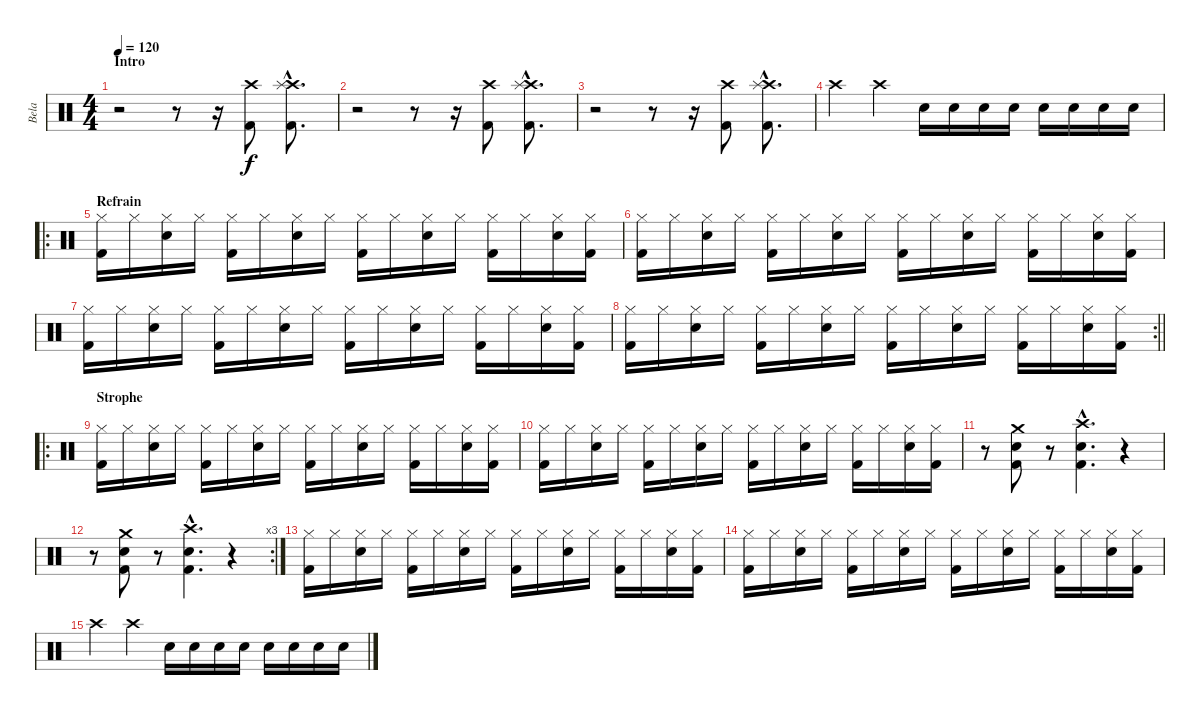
\track ("Bela" "Bela") {instrument percussion}
\staff {score}
\articulation defaults
\ts (4 4)
\section ("" "Intro")
\tempo 120
\clef neutral
\ks c
r.2{dy f} r.8 r.16 ("Crash high (hit)" "Kick (hit) 2").8 ("Crash high (hit)"{hac} "Splash (hit)"{hac} "Kick (hit) 2"{hac}).8{d} |
r.2 r.8 r.16 ("Crash high (hit)" "Kick (hit) 2").8 ("Crash high (hit)"{hac} "Splash (hit)"{hac} "Kick (hit) 2"{hac}).8{d} |
r.2 r.8 r.16 ("Crash high (hit)" "Kick (hit) 2").8 ("Crash high (hit)"{hac} "Splash (hit)"{hac} "Kick (hit) 2"{hac}).8{d} |
"Crash high (hit)".4 "Crash high (hit)".4 "Electric Snare (hit)".16 "Electric Snare (hit)".16 "Electric Snare (hit)".16 "Electric Snare (hit)".16 "Electric Snare (hit)".16 "Electric Snare (hit)".16 "Electric Snare (hit)".16 "Electric Snare (hit)".16 |
\ro
\section ("" "Refrain")
("Hi-Hat (closed)" "Kick (hit) 2").16 "Hi-Hat (closed)".16 ("Hi-Hat (closed)" "Snare (hit) 2").16 "Hi-Hat (closed)".16 ("Hi-Hat (closed)" "Kick (hit) 2").16 "Hi-Hat (closed)".16 ("Hi-Hat (closed)" "Snare (hit) 2").16 "Hi-Hat (closed)".16 ("Hi-Hat (closed)" "Kick (hit) 2").16 "Hi-Hat (closed)".16 ("Hi-Hat (closed)" "Snare (hit) 2").16 "Hi-Hat (closed)".16 ("Hi-Hat (closed)" "Kick (hit) 2").16 "Hi-Hat (closed)".16 ("Hi-Hat (closed)" "Snare (hit) 2").16 ("Hi-Hat (closed)" "Kick (hit) 2").16 |
("Hi-Hat (closed)" "Kick (hit) 2").16 "Hi-Hat (closed)".16 ("Hi-Hat (closed)" "Snare (hit) 2").16 "Hi-Hat (closed)".16 ("Hi-Hat (closed)" "Kick (hit) 2").16 "Hi-Hat (closed)".16 ("Hi-Hat (closed)" "Snare (hit) 2").16 "Hi-Hat (closed)".16 ("Hi-Hat (closed)" "Kick (hit) 2").16 "Hi-Hat (closed)".16 ("Hi-Hat (closed)" "Snare (hit) 2").16 "Hi-Hat (closed)".16 ("Hi-Hat (closed)" "Kick (hit) 2").16 "Hi-Hat (closed)".16 ("Hi-Hat (closed)" "Snare (hit) 2").16 ("Hi-Hat (closed)" "Kick (hit) 2").16 |
("Hi-Hat (closed)" "Kick (hit) 2").16 "Hi-Hat (closed)".16 ("Hi-Hat (closed)" "Snare (hit) 2").16 "Hi-Hat (closed)".16 ("Hi-Hat (closed)" "Kick (hit) 2").16 "Hi-Hat (closed)".16 ("Hi-Hat (closed)" "Snare (hit) 2").16 "Hi-Hat (closed)".16 ("Hi-Hat (closed)" "Kick (hit) 2").16 "Hi-Hat (closed)".16 ("Hi-Hat (closed)" "Snare (hit) 2").16 "Hi-Hat (closed)".16 ("Hi-Hat (closed)" "Kick (hit) 2").16 "Hi-Hat (closed)".16 ("Hi-Hat (closed)" "Snare (hit) 2").16 ("Hi-Hat (closed)" "Kick (hit) 2").16 |
\rc 2
\barLineRight lightlight
("Hi-Hat (closed)" "Kick (hit) 2").16 "Hi-Hat (closed)".16 ("Hi-Hat (closed)" "Snare (hit) 2").16 "Hi-Hat (closed)".16 ("Hi-Hat (closed)" "Kick (hit) 2").16 "Hi-Hat (closed)".16 ("Hi-Hat (closed)" "Snare (hit) 2").16 "Hi-Hat (closed)".16 ("Hi-Hat (closed)" "Kick (hit) 2").16 "Hi-Hat (closed)".16 ("Hi-Hat (closed)" "Snare (hit) 2").16 "Hi-Hat (closed)".16 ("Hi-Hat (closed)" "Kick (hit) 2").16 "Hi-Hat (closed)".16 ("Hi-Hat (closed)" "Snare (hit) 2").16 ("Hi-Hat (closed)" "Kick (hit) 2").16 |
\ro
\section ("" "Strophe")
("Hi-Hat (closed)" "Kick (hit) 2").16 "Hi-Hat (closed)".16 ("Hi-Hat (closed)" "Snare (hit) 2").16 "Hi-Hat (closed)".16 ("Hi-Hat (closed)" "Kick (hit) 2").16 "Hi-Hat (closed)".16 ("Hi-Hat (closed)" "Snare (hit) 2").16 "Hi-Hat (closed)".16 ("Hi-Hat (closed)" "Kick (hit) 2").16 "Hi-Hat (closed)".16 ("Hi-Hat (closed)" "Snare (hit) 2").16 "Hi-Hat (closed)".16 ("Hi-Hat (closed)" "Kick (hit) 2").16 "Hi-Hat (closed)".16 ("Hi-Hat (closed)" "Snare (hit) 2").16 ("Hi-Hat (closed)" "Kick (hit) 2").16 |
("Hi-Hat (closed)" "Kick (hit) 2").16 "Hi-Hat (closed)".16 ("Hi-Hat (closed)" "Snare (hit) 2").16 "Hi-Hat (closed)".16 ("Hi-Hat (closed)" "Kick (hit) 2").16 "Hi-Hat (closed)".16 ("Hi-Hat (closed)" "Snare (hit) 2").16 "Hi-Hat (closed)".16 ("Hi-Hat (closed)" "Kick (hit) 2").16 "Hi-Hat (closed)".16 ("Hi-Hat (closed)" "Snare (hit) 2").16 "Hi-Hat (closed)".16 ("Hi-Hat (closed)" "Kick (hit) 2").16 "Hi-Hat (closed)".16 ("Hi-Hat (closed)" "Snare (hit) 2").16 ("Hi-Hat (closed)" "Kick (hit) 2").16 |
r.8 ("Crash medium (hit)" "Snare (hit) 2" "Kick (hit) 2").8 r.8 ("Crash high (hit)"{hac} "Snare (hit) 2"{hac} "Kick (hit) 2"{hac}).4{d} r.4 |
\rc 3
r.8 ("Crash medium (hit)" "Snare (hit) 2" "Kick (hit) 2").8 r.8 ("Crash high (hit)"{hac} "Snare (hit) 2"{hac} "Kick (hit) 2"{hac}).4{d} r.4 |
("Hi-Hat (closed)" "Kick (hit) 2").16 "Hi-Hat (closed)".16 ("Hi-Hat (closed)" "Snare (hit) 2").16 "Hi-Hat (closed)".16 ("Hi-Hat (closed)" "Kick (hit) 2").16 "Hi-Hat (closed)".16 ("Hi-Hat (closed)" "Snare (hit) 2").16 "Hi-Hat (closed)".16 ("Hi-Hat (closed)" "Kick (hit) 2").16 "Hi-Hat (closed)".16 ("Hi-Hat (closed)" "Snare (hit) 2").16 "Hi-Hat (closed)".16 ("Hi-Hat (closed)" "Kick (hit) 2").16 "Hi-Hat (closed)".16 ("Hi-Hat (closed)" "Snare (hit) 2").16 ("Hi-Hat (closed)" "Kick (hit) 2").16 |
("Hi-Hat (closed)" "Kick (hit) 2").16 "Hi-Hat (closed)".16 ("Hi-Hat (closed)" "Snare (hit) 2").16 "Hi-Hat (closed)".16 ("Hi-Hat (closed)" "Kick (hit) 2").16 "Hi-Hat (closed)".16 ("Hi-Hat (closed)" "Snare (hit) 2").16 "Hi-Hat (closed)".16 ("Hi-Hat (closed)" "Kick (hit) 2").16 "Hi-Hat (closed)".16 ("Hi-Hat (closed)" "Snare (hit) 2").16 "Hi-Hat (closed)".16 ("Hi-Hat (closed)" "Kick (hit) 2").16 "Hi-Hat (closed)".16 ("Hi-Hat (closed)" "Snare (hit) 2").16 ("Hi-Hat (closed)" "Kick (hit) 2").16 |
"Crash high (hit)".4 "Crash high (hit)".4 "Electric Snare (hit)".16 "Electric Snare (hit)".16 "Electric Snare (hit)".16 "Electric Snare (hit)".16 "Electric Snare (hit)".16 "Electric Snare (hit)".16 "Electric Snare (hit)".16 "Electric Snare (hit)".16
